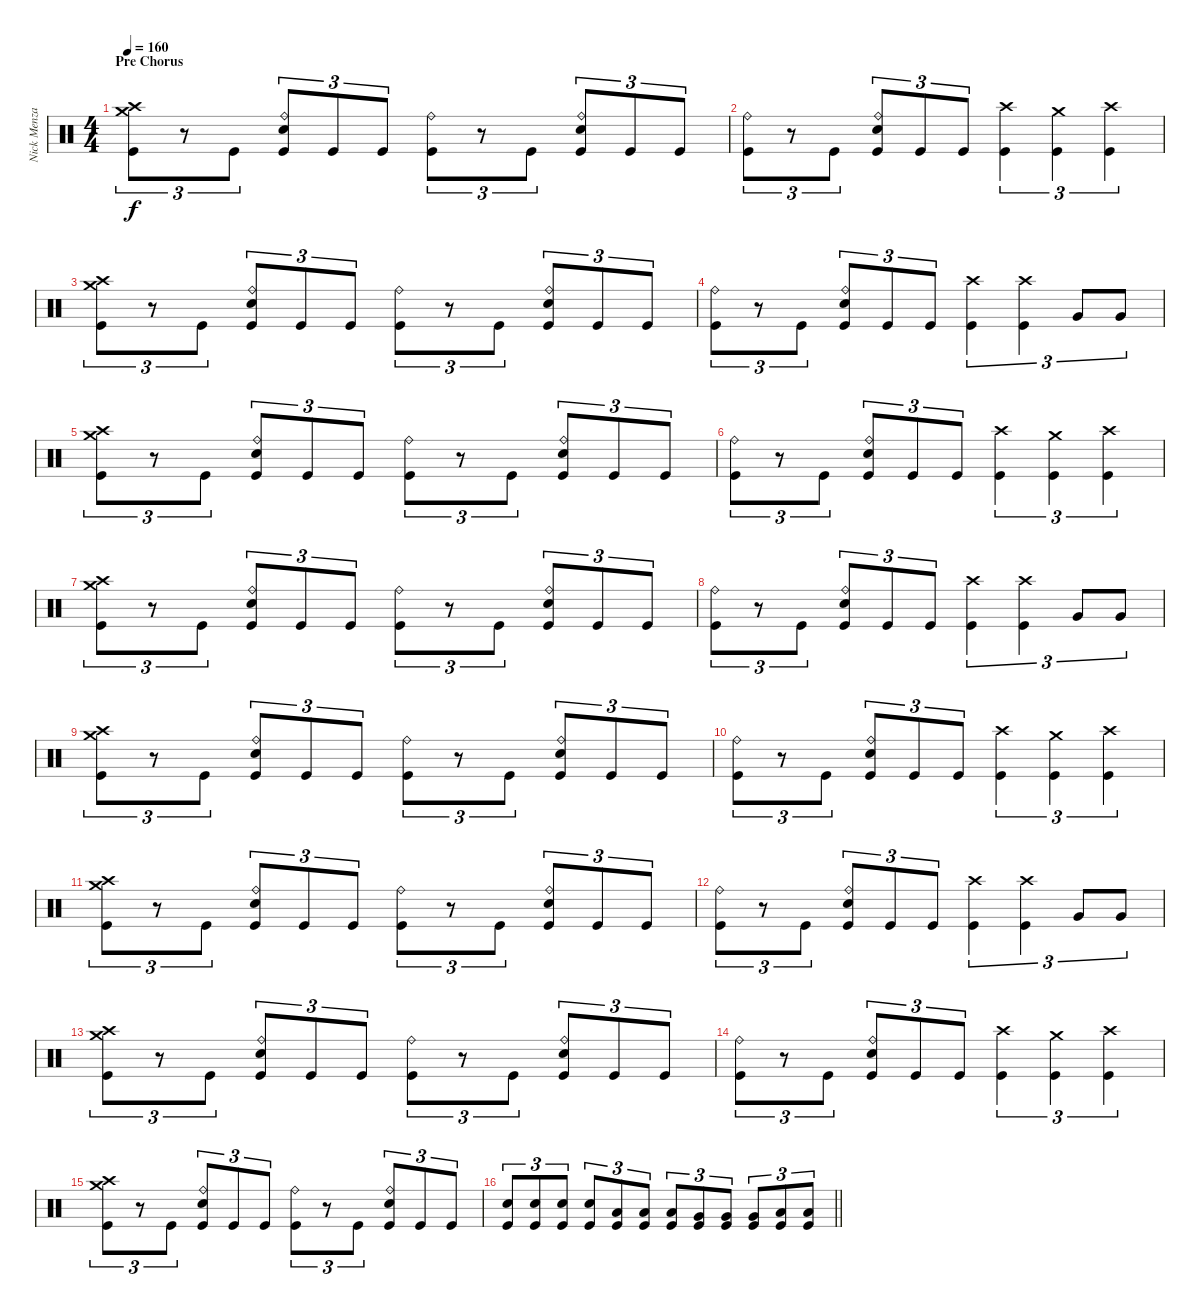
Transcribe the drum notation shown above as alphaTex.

\track ("Nick Menza" "Nick Menza") {instrument percussion}
\staff {score}
\articulation defaults
\ts (4 4)
\section ("" "Pre Chorus")
\tempo 160
\clef neutral
\ks c
("Crash high (hit)" "Crash medium (hit)" "Kick (hit)").8{tu (3 2) dy f} r.8{tu (3 2)} "Kick (hit)".8{tu (3 2)} ("Ride (bell)" "Snare (hit) 2" "Kick (hit)").8{tu (3 2)} "Kick (hit)".8{tu (3 2)} "Kick (hit)".8{tu (3 2)} ("Ride (bell)" "Kick (hit)").8{tu (3 2)} r.8{tu (3 2)} "Kick (hit)".8{tu (3 2)} ("Ride (bell)" "Snare (hit) 2" "Kick (hit)").8{tu (3 2)} "Kick (hit)".8{tu (3 2)} "Kick (hit)".8{tu (3 2)} |
("Ride (bell)" "Kick (hit)").8{tu (3 2)} r.8{tu (3 2)} "Kick (hit)".8{tu (3 2)} ("Ride (bell)" "Snare (hit) 2" "Kick (hit)").8{tu (3 2)} "Kick (hit)".8{tu (3 2)} "Kick (hit)".8{tu (3 2)} ("Crash high (hit)" "Kick (hit)").4{tu (3 2)} ("Crash medium (hit)" "Kick (hit)").4{tu (3 2)} ("Crash high (hit)" "Kick (hit)").4{tu (3 2)} |
("Crash high (hit)" "Crash medium (hit)" "Kick (hit)").8{tu (3 2)} r.8{tu (3 2)} "Kick (hit)".8{tu (3 2)} ("Ride (bell)" "Snare (hit) 2" "Kick (hit)").8{tu (3 2)} "Kick (hit)".8{tu (3 2)} "Kick (hit)".8{tu (3 2)} ("Ride (bell)" "Kick (hit)").8{tu (3 2)} r.8{tu (3 2)} "Kick (hit)".8{tu (3 2)} ("Ride (bell)" "Snare (hit) 2" "Kick (hit)").8{tu (3 2)} "Kick (hit)".8{tu (3 2)} "Kick (hit)".8{tu (3 2)} |
("Ride (bell)" "Kick (hit)").8{tu (3 2)} r.8{tu (3 2)} "Kick (hit)".8{tu (3 2)} ("Ride (bell)" "Snare (hit) 2" "Kick (hit)").8{tu (3 2)} "Kick (hit)".8{tu (3 2)} "Kick (hit)".8{tu (3 2)} ("Crash high (hit)" "Kick (hit)").4{tu (3 2)} ("Crash high (hit)" "Kick (hit)").4{tu (3 2)} "Very Low Tom (hit)".8{tu (3 2)} "Very Low Tom (hit)".8{tu (3 2)} |
("Crash high (hit)" "Crash medium (hit)" "Kick (hit)").8{tu (3 2)} r.8{tu (3 2)} "Kick (hit)".8{tu (3 2)} ("Ride (bell)" "Snare (hit) 2" "Kick (hit)").8{tu (3 2)} "Kick (hit)".8{tu (3 2)} "Kick (hit)".8{tu (3 2)} ("Ride (bell)" "Kick (hit)").8{tu (3 2)} r.8{tu (3 2)} "Kick (hit)".8{tu (3 2)} ("Ride (bell)" "Snare (hit) 2" "Kick (hit)").8{tu (3 2)} "Kick (hit)".8{tu (3 2)} "Kick (hit)".8{tu (3 2)} |
("Ride (bell)" "Kick (hit)").8{tu (3 2)} r.8{tu (3 2)} "Kick (hit)".8{tu (3 2)} ("Ride (bell)" "Snare (hit) 2" "Kick (hit)").8{tu (3 2)} "Kick (hit)".8{tu (3 2)} "Kick (hit)".8{tu (3 2)} ("Crash high (hit)" "Kick (hit)").4{tu (3 2)} ("Crash medium (hit)" "Kick (hit)").4{tu (3 2)} ("Crash high (hit)" "Kick (hit)").4{tu (3 2)} |
("Crash high (hit)" "Crash medium (hit)" "Kick (hit)").8{tu (3 2)} r.8{tu (3 2)} "Kick (hit)".8{tu (3 2)} ("Ride (bell)" "Snare (hit) 2" "Kick (hit)").8{tu (3 2)} "Kick (hit)".8{tu (3 2)} "Kick (hit)".8{tu (3 2)} ("Ride (bell)" "Kick (hit)").8{tu (3 2)} r.8{tu (3 2)} "Kick (hit)".8{tu (3 2)} ("Ride (bell)" "Snare (hit) 2" "Kick (hit)").8{tu (3 2)} "Kick (hit)".8{tu (3 2)} "Kick (hit)".8{tu (3 2)} |
("Ride (bell)" "Kick (hit)").8{tu (3 2)} r.8{tu (3 2)} "Kick (hit)".8{tu (3 2)} ("Ride (bell)" "Snare (hit) 2" "Kick (hit)").8{tu (3 2)} "Kick (hit)".8{tu (3 2)} "Kick (hit)".8{tu (3 2)} ("Crash high (hit)" "Kick (hit)").4{tu (3 2)} ("Crash high (hit)" "Kick (hit)").4{tu (3 2)} "Very Low Tom (hit)".8{tu (3 2)} "Very Low Tom (hit)".8{tu (3 2)} |
("Crash high (hit)" "Crash medium (hit)" "Kick (hit)").8{tu (3 2)} r.8{tu (3 2)} "Kick (hit)".8{tu (3 2)} ("Ride (bell)" "Snare (hit) 2" "Kick (hit)").8{tu (3 2)} "Kick (hit)".8{tu (3 2)} "Kick (hit)".8{tu (3 2)} ("Ride (bell)" "Kick (hit)").8{tu (3 2)} r.8{tu (3 2)} "Kick (hit)".8{tu (3 2)} ("Ride (bell)" "Snare (hit) 2" "Kick (hit)").8{tu (3 2)} "Kick (hit)".8{tu (3 2)} "Kick (hit)".8{tu (3 2)} |
("Ride (bell)" "Kick (hit)").8{tu (3 2)} r.8{tu (3 2)} "Kick (hit)".8{tu (3 2)} ("Ride (bell)" "Snare (hit) 2" "Kick (hit)").8{tu (3 2)} "Kick (hit)".8{tu (3 2)} "Kick (hit)".8{tu (3 2)} ("Crash high (hit)" "Kick (hit)").4{tu (3 2)} ("Crash medium (hit)" "Kick (hit)").4{tu (3 2)} ("Crash high (hit)" "Kick (hit)").4{tu (3 2)} |
("Crash high (hit)" "Crash medium (hit)" "Kick (hit)").8{tu (3 2)} r.8{tu (3 2)} "Kick (hit)".8{tu (3 2)} ("Ride (bell)" "Snare (hit) 2" "Kick (hit)").8{tu (3 2)} "Kick (hit)".8{tu (3 2)} "Kick (hit)".8{tu (3 2)} ("Ride (bell)" "Kick (hit)").8{tu (3 2)} r.8{tu (3 2)} "Kick (hit)".8{tu (3 2)} ("Ride (bell)" "Snare (hit) 2" "Kick (hit)").8{tu (3 2)} "Kick (hit)".8{tu (3 2)} "Kick (hit)".8{tu (3 2)} |
("Ride (bell)" "Kick (hit)").8{tu (3 2)} r.8{tu (3 2)} "Kick (hit)".8{tu (3 2)} ("Ride (bell)" "Snare (hit) 2" "Kick (hit)").8{tu (3 2)} "Kick (hit)".8{tu (3 2)} "Kick (hit)".8{tu (3 2)} ("Crash high (hit)" "Kick (hit)").4{tu (3 2)} ("Crash high (hit)" "Kick (hit)").4{tu (3 2)} "Very Low Tom (hit)".8{tu (3 2)} "Very Low Tom (hit)".8{tu (3 2)} |
("Crash high (hit)" "Crash medium (hit)" "Kick (hit)").8{tu (3 2)} r.8{tu (3 2)} "Kick (hit)".8{tu (3 2)} ("Ride (bell)" "Snare (hit) 2" "Kick (hit)").8{tu (3 2)} "Kick (hit)".8{tu (3 2)} "Kick (hit)".8{tu (3 2)} ("Ride (bell)" "Kick (hit)").8{tu (3 2)} r.8{tu (3 2)} "Kick (hit)".8{tu (3 2)} ("Ride (bell)" "Snare (hit) 2" "Kick (hit)").8{tu (3 2)} "Kick (hit)".8{tu (3 2)} "Kick (hit)".8{tu (3 2)} |
("Ride (bell)" "Kick (hit)").8{tu (3 2)} r.8{tu (3 2)} "Kick (hit)".8{tu (3 2)} ("Ride (bell)" "Snare (hit) 2" "Kick (hit)").8{tu (3 2)} "Kick (hit)".8{tu (3 2)} "Kick (hit)".8{tu (3 2)} ("Crash high (hit)" "Kick (hit)").4{tu (3 2)} ("Crash medium (hit)" "Kick (hit)").4{tu (3 2)} ("Crash high (hit)" "Kick (hit)").4{tu (3 2)} |
("Crash high (hit)" "Crash medium (hit)" "Kick (hit)").8{tu (3 2)} r.8{tu (3 2)} "Kick (hit)".8{tu (3 2)} ("Ride (bell)" "Snare (hit) 2" "Kick (hit)").8{tu (3 2)} "Kick (hit)".8{tu (3 2)} "Kick (hit)".8{tu (3 2)} ("Ride (bell)" "Kick (hit)").8{tu (3 2)} r.8{tu (3 2)} "Kick (hit)".8{tu (3 2)} ("Ride (bell)" "Snare (hit) 2" "Kick (hit)").8{tu (3 2)} "Kick (hit)".8{tu (3 2)} "Kick (hit)".8{tu (3 2)} |
\barLineRight lightlight
("Snare (hit) 2" "Kick (hit)").8{tu (3 2)} ("Snare (hit) 2" "Kick (hit)").8{tu (3 2)} ("Snare (hit) 2" "Kick (hit)").8{tu (3 2)} ("Snare (hit) 2" "Kick (hit)").8{tu (3 2)} ("Low Tom (hit)" "Kick (hit)").8{tu (3 2)} ("Low Tom (hit)" "Kick (hit)").8{tu (3 2)} ("Low Tom (hit)" "Kick (hit)").8{tu (3 2)} ("Very Low Tom (hit)" "Kick (hit)").8{tu (3 2)} ("Very Low Tom (hit)" "Kick (hit)").8{tu (3 2)} ("Very Low Tom (hit)" "Kick (hit)").8{tu (3 2)} ("Low Floor Tom (hit)" "Kick (hit)").8{tu (3 2)} ("Low Floor Tom (hit)" "Kick (hit)").8{tu (3 2)}
